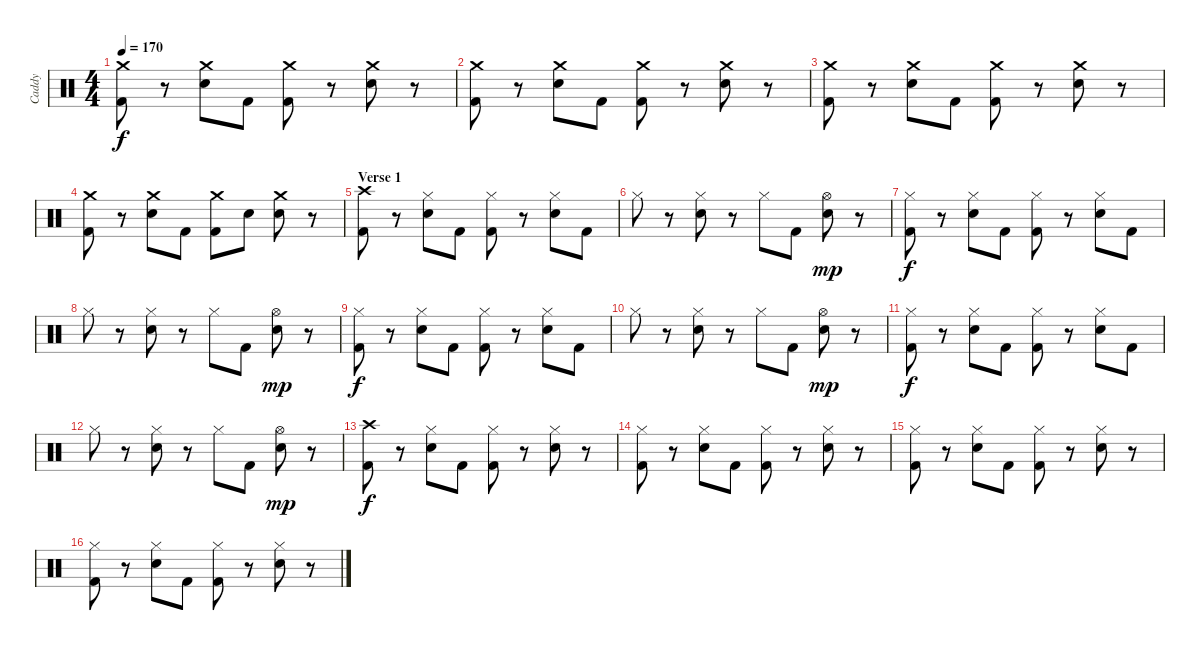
\track ("Caddy" "Caddy") {instrument percussion}
\staff {score}
\articulation defaults
\ts (4 4)
\tempo 170
\clef neutral
\ks c
("Crash medium (hit)" "Kick (hit) 2").8{dy f} r.8 ("Crash medium (hit)" "Electric Snare (hit)").8 "Kick (hit) 2".8 ("Crash medium (hit)" "Kick (hit) 2").8 r.8 ("Crash medium (hit)" "Electric Snare (hit)").8 r.8 |
("Crash medium (hit)" "Kick (hit) 2").8 r.8 ("Crash medium (hit)" "Electric Snare (hit)").8 "Kick (hit) 2".8 ("Crash medium (hit)" "Kick (hit) 2").8 r.8 ("Crash medium (hit)" "Electric Snare (hit)").8 r.8 |
("Crash medium (hit)" "Kick (hit) 2").8 r.8 ("Crash medium (hit)" "Electric Snare (hit)").8 "Kick (hit) 2".8 ("Crash medium (hit)" "Kick (hit) 2").8 r.8 ("Crash medium (hit)" "Electric Snare (hit)").8 r.8 |
("Crash medium (hit)" "Kick (hit) 2").8 r.8 ("Crash medium (hit)" "Electric Snare (hit)").8 "Kick (hit) 2".8 ("Crash medium (hit)" "Kick (hit) 2").8 "Electric Snare (hit)".8 ("Crash medium (hit)" "Electric Snare (hit)").8 r.8 |
\section ("" "Verse 1")
("Crash high (hit)" "Kick (hit) 2").8 r.8 ("Hi-Hat (closed)" "Electric Snare (hit)").8 "Kick (hit) 2".8 ("Hi-Hat (closed)" "Kick (hit) 2").8 r.8 ("Hi-Hat (closed)" "Electric Snare (hit)").8 "Kick (hit) 2".8 |
"Hi-Hat (closed)".8 r.8 ("Hi-Hat (closed)" "Electric Snare (hit)").8 r.8 "Hi-Hat (closed)".8 "Kick (hit) 2".8 ("Hi-Hat (open)" "Electric Snare (hit)").8{dy mp} r.8 |
("Hi-Hat (closed)" "Kick (hit) 2").8{dy f} r.8 ("Hi-Hat (closed)" "Electric Snare (hit)").8 "Kick (hit) 2".8 ("Hi-Hat (closed)" "Kick (hit) 2").8 r.8 ("Hi-Hat (closed)" "Electric Snare (hit)").8 "Kick (hit) 2".8 |
"Hi-Hat (closed)".8 r.8 ("Hi-Hat (closed)" "Electric Snare (hit)").8 r.8 "Hi-Hat (closed)".8 "Kick (hit) 2".8 ("Hi-Hat (open)" "Electric Snare (hit)").8{dy mp} r.8 |
("Hi-Hat (closed)" "Kick (hit) 2").8{dy f} r.8 ("Hi-Hat (closed)" "Electric Snare (hit)").8 "Kick (hit) 2".8 ("Hi-Hat (closed)" "Kick (hit) 2").8 r.8 ("Hi-Hat (closed)" "Electric Snare (hit)").8 "Kick (hit) 2".8 |
"Hi-Hat (closed)".8 r.8 ("Hi-Hat (closed)" "Electric Snare (hit)").8 r.8 "Hi-Hat (closed)".8 "Kick (hit) 2".8 ("Hi-Hat (open)" "Electric Snare (hit)").8{dy mp} r.8 |
("Hi-Hat (closed)" "Kick (hit) 2").8{dy f} r.8 ("Hi-Hat (closed)" "Electric Snare (hit)").8 "Kick (hit) 2".8 ("Hi-Hat (closed)" "Kick (hit) 2").8 r.8 ("Hi-Hat (closed)" "Electric Snare (hit)").8 "Kick (hit) 2".8 |
"Hi-Hat (closed)".8 r.8 ("Hi-Hat (closed)" "Electric Snare (hit)").8 r.8 "Hi-Hat (closed)".8 "Kick (hit) 2".8 ("Hi-Hat (open)" "Electric Snare (hit)").8{dy mp} r.8 |
("Crash high (hit)" "Kick (hit) 2").8{dy f} r.8 ("Hi-Hat (closed)" "Electric Snare (hit)").8 "Kick (hit) 2".8 ("Hi-Hat (closed)" "Kick (hit) 2").8 r.8 ("Hi-Hat (closed)" "Electric Snare (hit)").8 r.8 |
("Hi-Hat (closed)" "Kick (hit) 2").8 r.8 ("Hi-Hat (closed)" "Electric Snare (hit)").8 "Kick (hit) 2".8 ("Hi-Hat (closed)" "Kick (hit) 2").8 r.8 ("Hi-Hat (closed)" "Electric Snare (hit)").8 r.8 |
("Hi-Hat (closed)" "Kick (hit) 2").8 r.8 ("Hi-Hat (closed)" "Electric Snare (hit)").8 "Kick (hit) 2".8 ("Hi-Hat (closed)" "Kick (hit) 2").8 r.8 ("Hi-Hat (closed)" "Electric Snare (hit)").8 r.8 |
("Hi-Hat (closed)" "Kick (hit) 2").8 r.8 ("Hi-Hat (closed)" "Electric Snare (hit)").8 "Kick (hit) 2".8 ("Hi-Hat (closed)" "Kick (hit) 2").8 r.8 ("Hi-Hat (closed)" "Electric Snare (hit)").8 r.8
